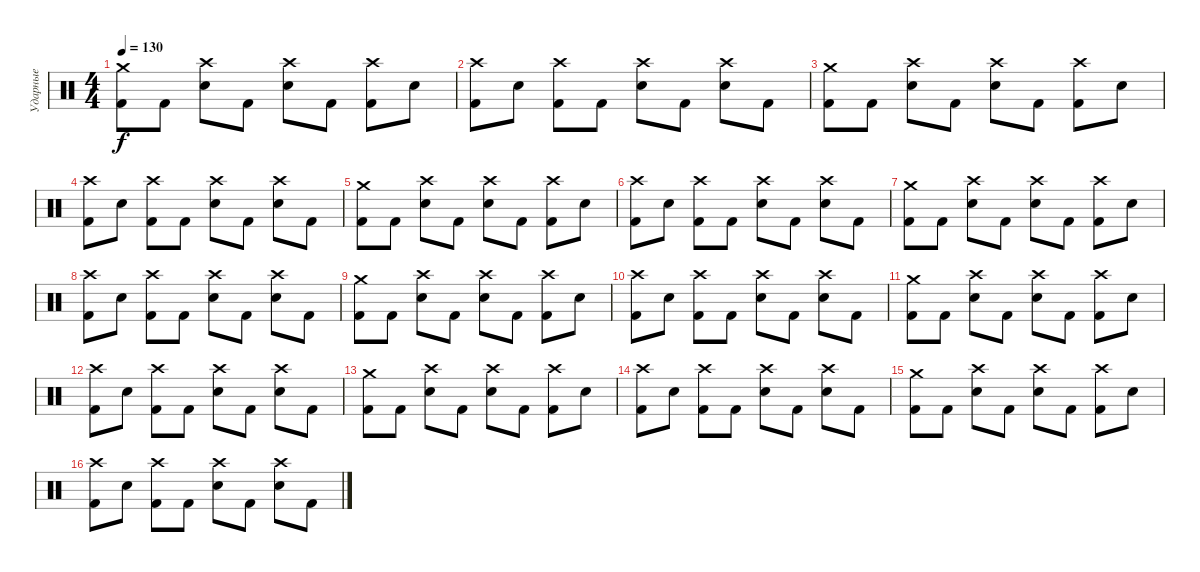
\track ("Ударные" "Ударные") {instrument percussion}
\staff {score}
\articulation defaults
\ts (4 4)
\tempo 130
\clef neutral
\ks c
("Crash medium (hit)" "Kick (hit) 2").8{dy f} "Kick (hit) 2".8 ("Crash high (hit)" "Electric Snare (hit)").8 "Kick (hit) 2".8 ("Crash high (hit)" "Electric Snare (hit)").8 "Kick (hit) 2".8 ("Crash high (hit)" "Kick (hit) 2").8 "Electric Snare (hit)".8 |
("Crash high (hit)" "Kick (hit) 2").8 "Electric Snare (hit)".8 ("Crash high (hit)" "Kick (hit) 2").8 "Kick (hit) 2".8 ("Crash high (hit)" "Electric Snare (hit)").8 "Kick (hit) 2".8 ("Crash high (hit)" "Electric Snare (hit)").8 "Kick (hit) 2".8 |
("Crash medium (hit)" "Kick (hit) 2").8 "Kick (hit) 2".8 ("Crash high (hit)" "Electric Snare (hit)").8 "Kick (hit) 2".8 ("Crash high (hit)" "Electric Snare (hit)").8 "Kick (hit) 2".8 ("Crash high (hit)" "Kick (hit) 2").8 "Electric Snare (hit)".8 |
("Crash high (hit)" "Kick (hit) 2").8 "Electric Snare (hit)".8 ("Crash high (hit)" "Kick (hit) 2").8 "Kick (hit) 2".8 ("Crash high (hit)" "Electric Snare (hit)").8 "Kick (hit) 2".8 ("Crash high (hit)" "Electric Snare (hit)").8 "Kick (hit) 2".8 |
("Crash medium (hit)" "Kick (hit) 2").8 "Kick (hit) 2".8 ("Crash high (hit)" "Electric Snare (hit)").8 "Kick (hit) 2".8 ("Crash high (hit)" "Electric Snare (hit)").8 "Kick (hit) 2".8 ("Crash high (hit)" "Kick (hit) 2").8 "Electric Snare (hit)".8 |
("Crash high (hit)" "Kick (hit) 2").8 "Electric Snare (hit)".8 ("Crash high (hit)" "Kick (hit) 2").8 "Kick (hit) 2".8 ("Crash high (hit)" "Electric Snare (hit)").8 "Kick (hit) 2".8 ("Crash high (hit)" "Electric Snare (hit)").8 "Kick (hit) 2".8 |
("Crash medium (hit)" "Kick (hit) 2").8 "Kick (hit) 2".8 ("Crash high (hit)" "Electric Snare (hit)").8 "Kick (hit) 2".8 ("Crash high (hit)" "Electric Snare (hit)").8 "Kick (hit) 2".8 ("Crash high (hit)" "Kick (hit) 2").8 "Electric Snare (hit)".8 |
("Crash high (hit)" "Kick (hit) 2").8 "Electric Snare (hit)".8 ("Crash high (hit)" "Kick (hit) 2").8 "Kick (hit) 2".8 ("Crash high (hit)" "Electric Snare (hit)").8 "Kick (hit) 2".8 ("Crash high (hit)" "Electric Snare (hit)").8 "Kick (hit) 2".8 |
("Crash medium (hit)" "Kick (hit) 2").8 "Kick (hit) 2".8 ("Crash high (hit)" "Electric Snare (hit)").8 "Kick (hit) 2".8 ("Crash high (hit)" "Electric Snare (hit)").8 "Kick (hit) 2".8 ("Crash high (hit)" "Kick (hit) 2").8 "Electric Snare (hit)".8 |
("Crash high (hit)" "Kick (hit) 2").8 "Electric Snare (hit)".8 ("Crash high (hit)" "Kick (hit) 2").8 "Kick (hit) 2".8 ("Crash high (hit)" "Electric Snare (hit)").8 "Kick (hit) 2".8 ("Crash high (hit)" "Electric Snare (hit)").8 "Kick (hit) 2".8 |
("Crash medium (hit)" "Kick (hit) 2").8 "Kick (hit) 2".8 ("Crash high (hit)" "Electric Snare (hit)").8 "Kick (hit) 2".8 ("Crash high (hit)" "Electric Snare (hit)").8 "Kick (hit) 2".8 ("Crash high (hit)" "Kick (hit) 2").8 "Electric Snare (hit)".8 |
("Crash high (hit)" "Kick (hit) 2").8 "Electric Snare (hit)".8 ("Crash high (hit)" "Kick (hit) 2").8 "Kick (hit) 2".8 ("Crash high (hit)" "Electric Snare (hit)").8 "Kick (hit) 2".8 ("Crash high (hit)" "Electric Snare (hit)").8 "Kick (hit) 2".8 |
("Crash medium (hit)" "Kick (hit) 2").8 "Kick (hit) 2".8 ("Crash high (hit)" "Electric Snare (hit)").8 "Kick (hit) 2".8 ("Crash high (hit)" "Electric Snare (hit)").8 "Kick (hit) 2".8 ("Crash high (hit)" "Kick (hit) 2").8 "Electric Snare (hit)".8 |
("Crash high (hit)" "Kick (hit) 2").8 "Electric Snare (hit)".8 ("Crash high (hit)" "Kick (hit) 2").8 "Kick (hit) 2".8 ("Crash high (hit)" "Electric Snare (hit)").8 "Kick (hit) 2".8 ("Crash high (hit)" "Electric Snare (hit)").8 "Kick (hit) 2".8 |
("Crash medium (hit)" "Kick (hit) 2").8 "Kick (hit) 2".8 ("Crash high (hit)" "Electric Snare (hit)").8 "Kick (hit) 2".8 ("Crash high (hit)" "Electric Snare (hit)").8 "Kick (hit) 2".8 ("Crash high (hit)" "Kick (hit) 2").8 "Electric Snare (hit)".8 |
("Crash high (hit)" "Kick (hit) 2").8 "Electric Snare (hit)".8 ("Crash high (hit)" "Kick (hit) 2").8 "Kick (hit) 2".8 ("Crash high (hit)" "Electric Snare (hit)").8 "Kick (hit) 2".8 ("Crash high (hit)" "Electric Snare (hit)").8 "Kick (hit) 2".8
